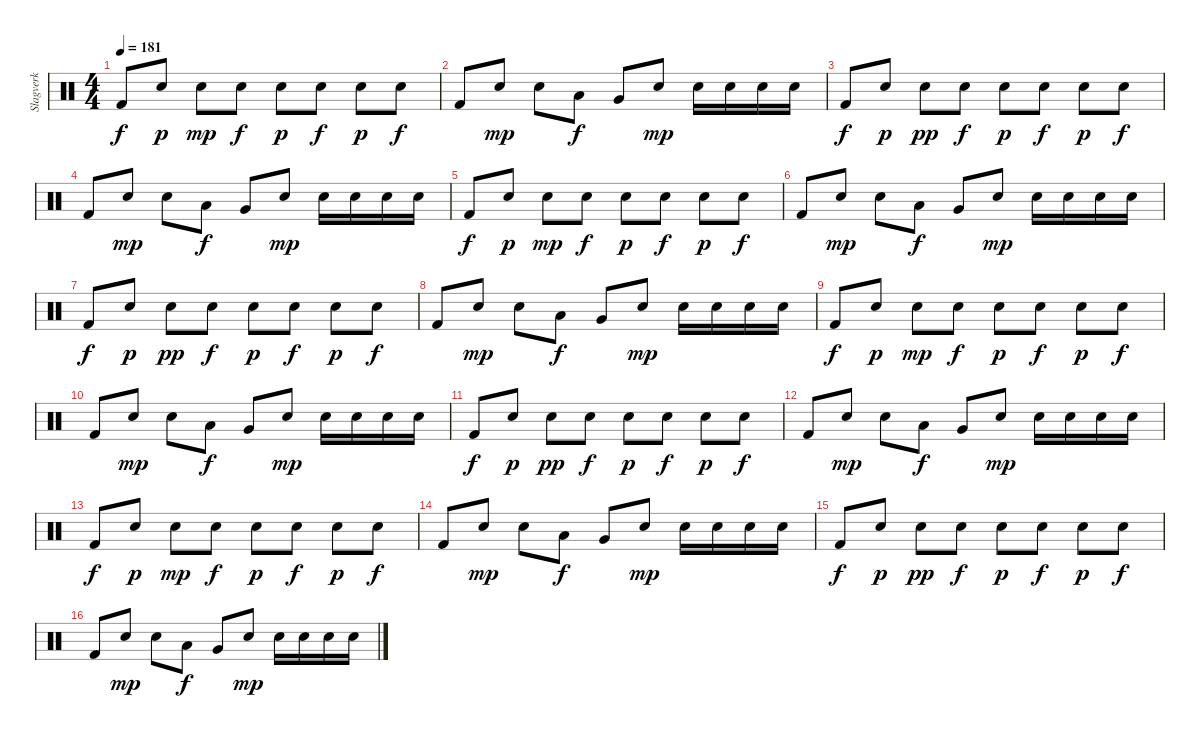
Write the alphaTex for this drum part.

\track ("Slagverk" "Slagverk") {instrument percussion}
\staff {score}
\articulation defaults
\ts (4 4)
\tempo 181
\clef neutral
\ks c "Kick (hit) 2".8{dy f} "Electric Snare (hit)".8{dy p} "Electric Snare (hit)".8{dy mp} "Electric Snare (hit)".8{dy f} "Electric Snare (hit)".8{dy p} "Electric Snare (hit)".8{dy f} "Electric Snare (hit)".8{dy p} "Electric Snare (hit)".8{dy f}
|
"Kick (hit) 2".8 "Electric Snare (hit)".8{dy mp} "Electric Snare (hit)".8 "Low Tom (hit)".8{dy f} "Very Low Tom (hit)".8 "Electric Snare (hit)".8{dy mp} "Electric Snare (hit)".16 "Electric Snare (hit)".16 "Electric Snare (hit)".16 "Electric Snare (hit)".16 |
"Kick (hit) 2".8{dy f} "Electric Snare (hit)".8{dy p} "Electric Snare (hit)".8{dy pp} "Electric Snare (hit)".8{dy f} "Electric Snare (hit)".8{dy p} "Electric Snare (hit)".8{dy f} "Electric Snare (hit)".8{dy p} "Electric Snare (hit)".8{dy f} |
"Kick (hit) 2".8 "Electric Snare (hit)".8{dy mp} "Electric Snare (hit)".8 "Low Tom (hit)".8{dy f} "Very Low Tom (hit)".8 "Electric Snare (hit)".8{dy mp} "Electric Snare (hit)".16 "Electric Snare (hit)".16 "Electric Snare (hit)".16 "Electric Snare (hit)".16 |
"Kick (hit) 2".8{dy f} "Electric Snare (hit)".8{dy p} "Electric Snare (hit)".8{dy mp} "Electric Snare (hit)".8{dy f} "Electric Snare (hit)".8{dy p} "Electric Snare (hit)".8{dy f} "Electric Snare (hit)".8{dy p} "Electric Snare (hit)".8{dy f} |
"Kick (hit) 2".8 "Electric Snare (hit)".8{dy mp} "Electric Snare (hit)".8 "Low Tom (hit)".8{dy f} "Very Low Tom (hit)".8 "Electric Snare (hit)".8{dy mp} "Electric Snare (hit)".16 "Electric Snare (hit)".16 "Electric Snare (hit)".16 "Electric Snare (hit)".16 |
"Kick (hit) 2".8{dy f} "Electric Snare (hit)".8{dy p} "Electric Snare (hit)".8{dy pp} "Electric Snare (hit)".8{dy f} "Electric Snare (hit)".8{dy p} "Electric Snare (hit)".8{dy f} "Electric Snare (hit)".8{dy p} "Electric Snare (hit)".8{dy f} |
"Kick (hit) 2".8 "Electric Snare (hit)".8{dy mp} "Electric Snare (hit)".8 "Low Tom (hit)".8{dy f} "Very Low Tom (hit)".8 "Electric Snare (hit)".8{dy mp} "Electric Snare (hit)".16 "Electric Snare (hit)".16 "Electric Snare (hit)".16 "Electric Snare (hit)".16 |
"Kick (hit) 2".8{dy f} "Electric Snare (hit)".8{dy p} "Electric Snare (hit)".8{dy mp} "Electric Snare (hit)".8{dy f} "Electric Snare (hit)".8{dy p} "Electric Snare (hit)".8{dy f} "Electric Snare (hit)".8{dy p} "Electric Snare (hit)".8{dy f} |
"Kick (hit) 2".8 "Electric Snare (hit)".8{dy mp} "Electric Snare (hit)".8 "Low Tom (hit)".8{dy f} "Very Low Tom (hit)".8 "Electric Snare (hit)".8{dy mp} "Electric Snare (hit)".16 "Electric Snare (hit)".16 "Electric Snare (hit)".16 "Electric Snare (hit)".16 |
"Kick (hit) 2".8{dy f} "Electric Snare (hit)".8{dy p} "Electric Snare (hit)".8{dy pp} "Electric Snare (hit)".8{dy f} "Electric Snare (hit)".8{dy p} "Electric Snare (hit)".8{dy f} "Electric Snare (hit)".8{dy p} "Electric Snare (hit)".8{dy f} |
"Kick (hit) 2".8 "Electric Snare (hit)".8{dy mp} "Electric Snare (hit)".8 "Low Tom (hit)".8{dy f} "Very Low Tom (hit)".8 "Electric Snare (hit)".8{dy mp} "Electric Snare (hit)".16 "Electric Snare (hit)".16 "Electric Snare (hit)".16 "Electric Snare (hit)".16 |
"Kick (hit) 2".8{dy f} "Electric Snare (hit)".8{dy p} "Electric Snare (hit)".8{dy mp} "Electric Snare (hit)".8{dy f} "Electric Snare (hit)".8{dy p} "Electric Snare (hit)".8{dy f} "Electric Snare (hit)".8{dy p} "Electric Snare (hit)".8{dy f} |
"Kick (hit) 2".8 "Electric Snare (hit)".8{dy mp} "Electric Snare (hit)".8 "Low Tom (hit)".8{dy f} "Very Low Tom (hit)".8 "Electric Snare (hit)".8{dy mp} "Electric Snare (hit)".16 "Electric Snare (hit)".16 "Electric Snare (hit)".16 "Electric Snare (hit)".16 |
"Kick (hit) 2".8{dy f} "Electric Snare (hit)".8{dy p} "Electric Snare (hit)".8{dy pp} "Electric Snare (hit)".8{dy f} "Electric Snare (hit)".8{dy p} "Electric Snare (hit)".8{dy f} "Electric Snare (hit)".8{dy p} "Electric Snare (hit)".8{dy f} |
"Kick (hit) 2".8 "Electric Snare (hit)".8{dy mp} "Electric Snare (hit)".8 "Low Tom (hit)".8{dy f} "Very Low Tom (hit)".8 "Electric Snare (hit)".8{dy mp} "Electric Snare (hit)".16 "Electric Snare (hit)".16 "Electric Snare (hit)".16 "Electric Snare (hit)".16
